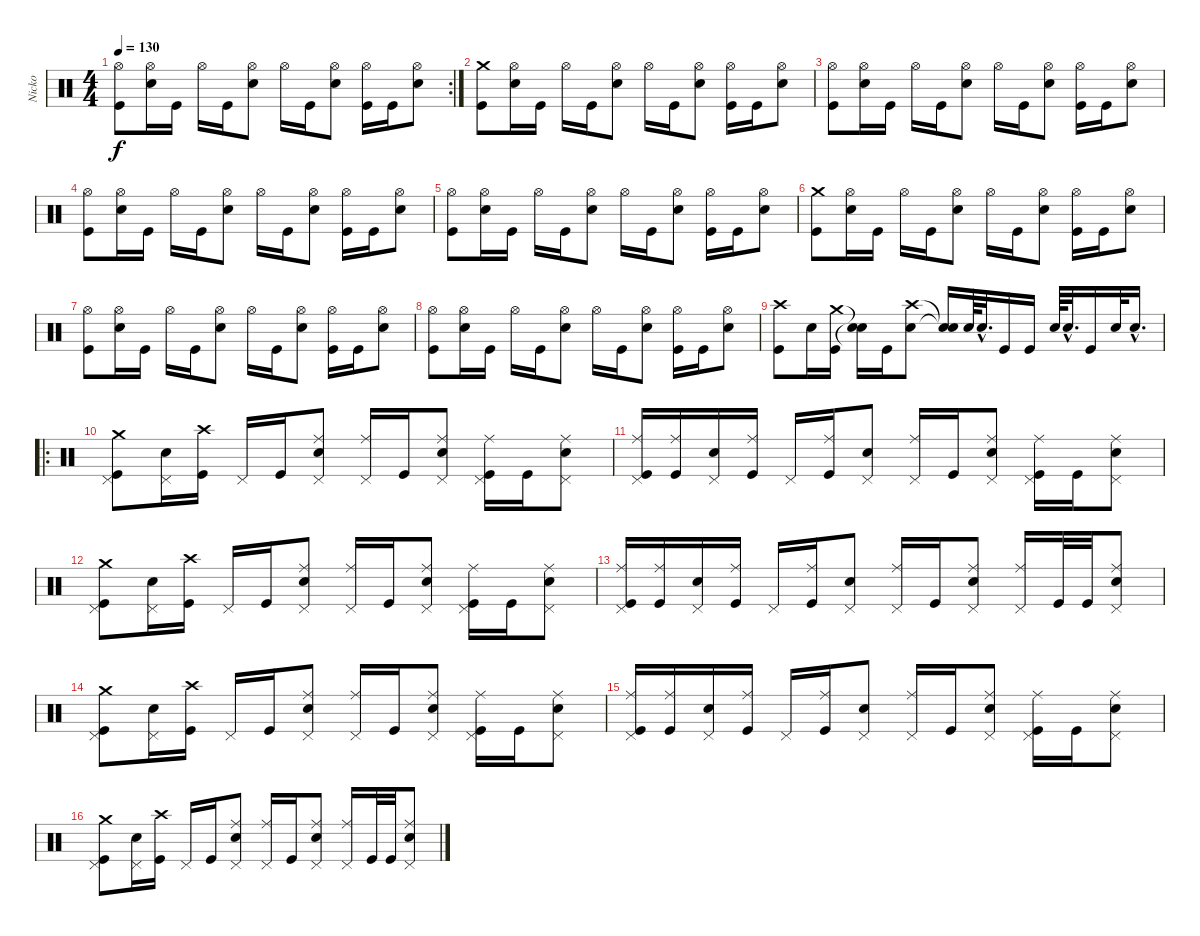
\track ("Nicko" "Nicko") {instrument percussion}
\staff {score}
\articulation defaults
\rc 2
\ts (4 4)
\tempo 130
\clef neutral
\ks c
("Hi-Hat (open)" "Kick (hit)").8{dy f} ("Hi-Hat (open)" "Snare (hit) 2").16 "Kick (hit)".16 "Hi-Hat (open)".16 "Kick (hit)".16 ("Hi-Hat (open)" "Snare (hit) 2").8 "Hi-Hat (open)".16 "Kick (hit)".16 ("Hi-Hat (open)" "Snare (hit) 2").8 ("Hi-Hat (open)" "Kick (hit)").16 "Kick (hit)".16 ("Hi-Hat (open)" "Snare (hit) 2").8 |
("Crash medium (hit)" "Kick (hit)").8 ("Hi-Hat (open)" "Snare (hit) 2").16 "Kick (hit)".16 "Hi-Hat (open)".16 "Kick (hit)".16 ("Hi-Hat (open)" "Snare (hit) 2").8 "Hi-Hat (open)".16 "Kick (hit)".16 ("Hi-Hat (open)" "Snare (hit) 2").8 ("Hi-Hat (open)" "Kick (hit)").16 "Kick (hit)".16 ("Hi-Hat (open)" "Snare (hit) 2").8 |
("Hi-Hat (open)" "Kick (hit)").8 ("Hi-Hat (open)" "Snare (hit) 2").16 "Kick (hit)".16 "Hi-Hat (open)".16 "Kick (hit)".16 ("Hi-Hat (open)" "Snare (hit) 2").8 "Hi-Hat (open)".16 "Kick (hit)".16 ("Hi-Hat (open)" "Snare (hit) 2").8 ("Hi-Hat (open)" "Kick (hit)").16 "Kick (hit)".16 ("Hi-Hat (open)" "Snare (hit) 2").8 |
("Hi-Hat (open)" "Kick (hit)").8 ("Hi-Hat (open)" "Snare (hit) 2").16 "Kick (hit)".16 "Hi-Hat (open)".16 "Kick (hit)".16 ("Hi-Hat (open)" "Snare (hit) 2").8 "Hi-Hat (open)".16 "Kick (hit)".16 ("Hi-Hat (open)" "Snare (hit) 2").8 ("Hi-Hat (open)" "Kick (hit)").16 "Kick (hit)".16 ("Hi-Hat (open)" "Snare (hit) 2").8 |
("Hi-Hat (open)" "Kick (hit)").8 ("Hi-Hat (open)" "Snare (hit) 2").16 "Kick (hit)".16 "Hi-Hat (open)".16 "Kick (hit)".16 ("Hi-Hat (open)" "Snare (hit) 2").8 "Hi-Hat (open)".16 "Kick (hit)".16 ("Hi-Hat (open)" "Snare (hit) 2").8 ("Hi-Hat (open)" "Kick (hit)").16 "Kick (hit)".16 ("Hi-Hat (open)" "Snare (hit) 2").8 |
("Crash medium (hit)" "Kick (hit)").8 ("Hi-Hat (open)" "Snare (hit) 2").16 "Kick (hit)".16 "Hi-Hat (open)".16 "Kick (hit)".16 ("Hi-Hat (open)" "Snare (hit) 2").8 "Hi-Hat (open)".16 "Kick (hit)".16 ("Hi-Hat (open)" "Snare (hit) 2").8 ("Hi-Hat (open)" "Kick (hit)").16 "Kick (hit)".16 ("Hi-Hat (open)" "Snare (hit) 2").8 |
("Hi-Hat (open)" "Kick (hit)").8 ("Hi-Hat (open)" "Snare (hit) 2").16 "Kick (hit)".16 "Hi-Hat (open)".16 "Kick (hit)".16 ("Hi-Hat (open)" "Snare (hit) 2").8 "Hi-Hat (open)".16 "Kick (hit)".16 ("Hi-Hat (open)" "Snare (hit) 2").8 ("Hi-Hat (open)" "Kick (hit)").16 "Kick (hit)".16 ("Hi-Hat (open)" "Snare (hit) 2").8 |
("Hi-Hat (open)" "Kick (hit)").8 ("Hi-Hat (open)" "Snare (hit) 2").16 "Kick (hit)".16 "Hi-Hat (open)".16 "Kick (hit)".16 ("Hi-Hat (open)" "Snare (hit) 2").8 "Hi-Hat (open)".16 "Kick (hit)".16 ("Hi-Hat (open)" "Snare (hit) 2").8 ("Hi-Hat (open)" "Kick (hit)").16 "Kick (hit)".16 ("Hi-Hat (open)" "Snare (hit) 2").8 |
("Crash high (hit)" "Kick (hit)").8 "Snare (hit) 2".16 ("Crash medium (hit)" "Kick (hit)").16 ("Snare (hit)"{t} "Snare (hit)"{t}).16 "Kick (hit)".16 ("Crash high (hit)" "Snare (hit) 2").8 ("Snare (hit)"{t} "Snare (hit)"{t}).16 "Snare (hit) 2".64 "Snare (hit) 2"{hac}.32{d} "Kick (hit)".16 "Kick (hit)".16 "Snare (hit) 2".64 "Snare (hit) 2"{hac}.32{d} "Kick (hit)".16 "Snare (hit) 2".32 "Snare (hit) 2"{hac}.16{d} |
\ro
("Crash medium (hit)" "Pedal Hi-Hat (hit)" "Kick (hit)").8 ("Snare (hit) 2" "Pedal Hi-Hat (hit)").16 ("Crash high (hit)" "Kick (hit)").16 "Pedal Hi-Hat (hit)".16 "Kick (hit)".16 ("Ride (middle)" "Snare (hit) 2" "Pedal Hi-Hat (hit)").8 ("Ride (middle)" "Pedal Hi-Hat (hit)").16 "Kick (hit)".16 ("Ride (middle)" "Snare (hit) 2" "Pedal Hi-Hat (hit)").8 ("Ride (middle)" "Pedal Hi-Hat (hit)" "Kick (hit)").16 "Kick (hit)".16 ("Ride (middle)" "Snare (hit) 2" "Pedal Hi-Hat (hit)").8 |
("Ride (middle)" "Pedal Hi-Hat (hit)" "Kick (hit)").16 ("Ride (middle)" "Kick (hit)").16 ("Snare (hit) 2" "Pedal Hi-Hat (hit)").16 ("Ride (middle)" "Kick (hit)").16 "Pedal Hi-Hat (hit)".16 ("Ride (middle)" "Kick (hit)").16 ("Snare (hit) 2" "Pedal Hi-Hat (hit)").8 ("Ride (middle)" "Pedal Hi-Hat (hit)").16 "Kick (hit)".16 ("Ride (middle)" "Snare (hit) 2" "Pedal Hi-Hat (hit)").8 ("Ride (middle)" "Pedal Hi-Hat (hit)" "Kick (hit)").16 "Kick (hit)".16 ("Ride (middle)" "Snare (hit) 2" "Pedal Hi-Hat (hit)").8 |
("Crash medium (hit)" "Pedal Hi-Hat (hit)" "Kick (hit)").8 ("Snare (hit) 2" "Pedal Hi-Hat (hit)").16 ("Crash high (hit)" "Kick (hit)").16 "Pedal Hi-Hat (hit)".16 "Kick (hit)".16 ("Ride (middle)" "Snare (hit) 2" "Pedal Hi-Hat (hit)").8 ("Ride (middle)" "Pedal Hi-Hat (hit)").16 "Kick (hit)".16 ("Ride (middle)" "Snare (hit) 2" "Pedal Hi-Hat (hit)").8 ("Ride (middle)" "Pedal Hi-Hat (hit)" "Kick (hit)").16 "Kick (hit)".16 ("Ride (middle)" "Snare (hit) 2" "Pedal Hi-Hat (hit)").8 |
("Ride (middle)" "Pedal Hi-Hat (hit)" "Kick (hit)").16 ("Ride (middle)" "Kick (hit)").16 ("Snare (hit) 2" "Pedal Hi-Hat (hit)").16 ("Ride (middle)" "Kick (hit)").16 "Pedal Hi-Hat (hit)".16 ("Ride (middle)" "Kick (hit)").16 ("Snare (hit) 2" "Pedal Hi-Hat (hit)").8 ("Ride (middle)" "Pedal Hi-Hat (hit)").16 "Kick (hit)".16 ("Ride (middle)" "Snare (hit) 2" "Pedal Hi-Hat (hit)").8 ("Ride (middle)" "Pedal Hi-Hat (hit)").16 "Kick (hit)".32 "Kick (hit)".32 ("Ride (middle)" "Snare (hit) 2" "Pedal Hi-Hat (hit)").8 |
("Crash medium (hit)" "Pedal Hi-Hat (hit)" "Kick (hit)").8 ("Snare (hit) 2" "Pedal Hi-Hat (hit)").16 ("Crash high (hit)" "Kick (hit)").16 "Pedal Hi-Hat (hit)".16 "Kick (hit)".16 ("Ride (middle)" "Snare (hit) 2" "Pedal Hi-Hat (hit)").8 ("Ride (middle)" "Pedal Hi-Hat (hit)").16 "Kick (hit)".16 ("Ride (middle)" "Snare (hit) 2" "Pedal Hi-Hat (hit)").8 ("Ride (middle)" "Pedal Hi-Hat (hit)" "Kick (hit)").16 "Kick (hit)".16 ("Ride (middle)" "Snare (hit) 2" "Pedal Hi-Hat (hit)").8 |
("Ride (middle)" "Pedal Hi-Hat (hit)" "Kick (hit)").16 ("Ride (middle)" "Kick (hit)").16 ("Snare (hit) 2" "Pedal Hi-Hat (hit)").16 ("Ride (middle)" "Kick (hit)").16 "Pedal Hi-Hat (hit)".16 ("Ride (middle)" "Kick (hit)").16 ("Snare (hit) 2" "Pedal Hi-Hat (hit)").8 ("Ride (middle)" "Pedal Hi-Hat (hit)").16 "Kick (hit)".16 ("Ride (middle)" "Snare (hit) 2" "Pedal Hi-Hat (hit)").8 ("Ride (middle)" "Pedal Hi-Hat (hit)" "Kick (hit)").16 "Kick (hit)".16 ("Ride (middle)" "Snare (hit) 2" "Pedal Hi-Hat (hit)").8 |
("Crash medium (hit)" "Pedal Hi-Hat (hit)" "Kick (hit)").8 ("Snare (hit) 2" "Pedal Hi-Hat (hit)").16 ("Crash high (hit)" "Kick (hit)").16 "Pedal Hi-Hat (hit)".16 "Kick (hit)".16 ("Ride (middle)" "Snare (hit) 2" "Pedal Hi-Hat (hit)").8 ("Ride (middle)" "Pedal Hi-Hat (hit)").16 "Kick (hit)".16 ("Ride (middle)" "Snare (hit) 2" "Pedal Hi-Hat (hit)").8 ("Ride (middle)" "Pedal Hi-Hat (hit)").16 "Kick (hit)".32 "Kick (hit)".32 ("Ride (middle)" "Snare (hit) 2" "Pedal Hi-Hat (hit)").8
